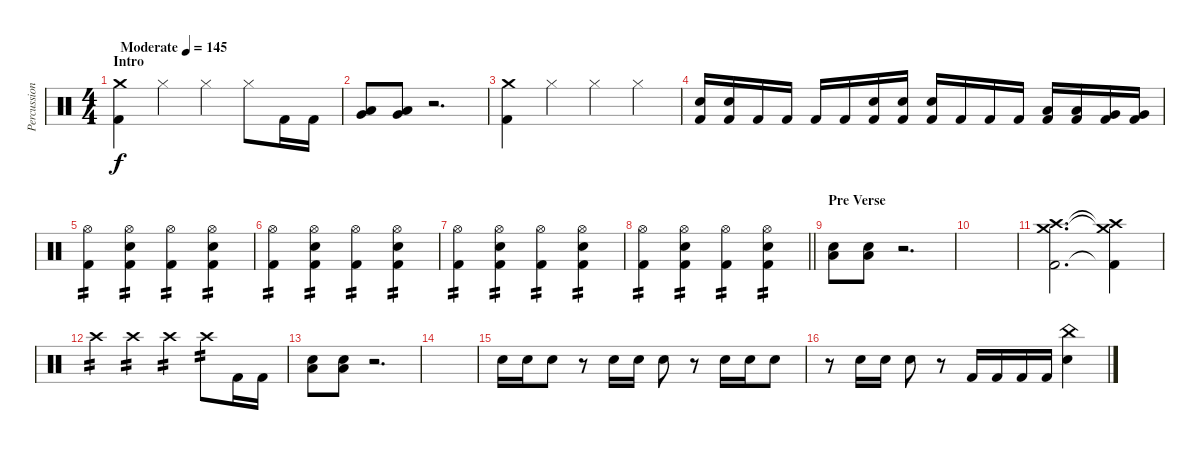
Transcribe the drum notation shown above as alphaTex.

\track ("Percussion" "Percussion") {instrument percussion}
\staff {score}
\articulation defaults
\ts (4 4)
\section ("" "Intro")
\tempo (145 "Moderate")
\clef neutral
\ks c
("Crash medium (hit)" "Kick (hit) 2").4{dy f} "Hi-Hat (closed)".4 "Hi-Hat (closed)".4 "Hi-Hat (closed)".8 "Kick (hit) 2".16 "Kick (hit) 2".16 |
("Very Low Tom (hit)" "Low Floor Tom (hit)").8 ("Very Low Tom (hit)" "Low Floor Tom (hit)").8 r.2{d} |
("Crash medium (hit)" "Kick (hit) 2").4 "Hi-Hat (closed)".4 "Hi-Hat (closed)".4 "Hi-Hat (closed)".4 |
("Electric Snare (hit)" "Kick (hit) 2").16 ("Electric Snare (hit)" "Kick (hit) 2").16 "Kick (hit) 2".16 "Kick (hit) 2".16 "Kick (hit) 2".16 "Kick (hit) 2".16 ("Electric Snare (hit)" "Kick (hit) 2").16 ("Electric Snare (hit)" "Kick (hit) 2").16 ("Electric Snare (hit)" "Kick (hit) 2").16 "Kick (hit) 2".16 "Kick (hit) 2".16 "Kick (hit) 2".16 ("Low Tom (hit)" "Kick (hit) 2").16 ("Low Tom (hit)" "Kick (hit) 2").16 ("Very Low Tom (hit)" "Kick (hit) 2").16 ("Very Low Tom (hit)" "Kick (hit) 2").16 |
("Hi-Hat (open)" "Kick (hit) 2").4{tp 2} ("Electric Snare (hit)" "Hi-Hat (open)" "Kick (hit) 2").4{tp 2} ("Hi-Hat (open)" "Kick (hit) 2").4{tp 2} ("Electric Snare (hit)" "Hi-Hat (open)" "Kick (hit) 2").4{tp 2} |
("Hi-Hat (open)" "Kick (hit) 2").4{tp 2} ("Electric Snare (hit)" "Hi-Hat (open)" "Kick (hit) 2").4{tp 2} ("Hi-Hat (open)" "Kick (hit) 2").4{tp 2} ("Electric Snare (hit)" "Hi-Hat (open)" "Kick (hit) 2").4{tp 2} |
("Hi-Hat (open)" "Kick (hit) 2").4{tp 2} ("Electric Snare (hit)" "Hi-Hat (open)" "Kick (hit) 2").4{tp 2} ("Hi-Hat (open)" "Kick (hit) 2").4{tp 2} ("Electric Snare (hit)" "Hi-Hat (open)" "Kick (hit) 2").4{tp 2} |
\barLineRight lightlight
("Hi-Hat (open)" "Kick (hit) 2").4{tp 2} ("Electric Snare (hit)" "Hi-Hat (open)" "Kick (hit) 2").4{tp 2} ("Hi-Hat (open)" "Kick (hit) 2").4{tp 2} ("Electric Snare (hit)" "Hi-Hat (open)" "Kick (hit) 2").4{tp 2} |
\section ("" "Pre Verse")
("Low Floor Tom (hit)" "Electric Snare (hit)").8 ("Low Floor Tom (hit)" "Electric Snare (hit)").8 r.2{d} |
|
("Crash high (hit)" "Crash medium (hit)" "Kick (hit) 2").2{d} ("Crash high (hit)"{t} "Crash medium (hit)"{t} "Kick (hit) 2"{t}).4{volume 5} |
"Crash high (hit)".4{tp 2 volume 16} "Crash high (hit)".4{tp 2} "Crash high (hit)".4{tp 2} "Crash high (hit)".8{tp 2} "Kick (hit) 2".16 "Kick (hit) 2".16 |
("Low Floor Tom (hit)" "Electric Snare (hit)").8{volume 13} ("Low Floor Tom (hit)" "Electric Snare (hit)").8 r.2{d} |
|
"Electric Snare (hit)".16 "Electric Snare (hit)".16 "Electric Snare (hit)".8 r.8 "Electric Snare (hit)".16 "Electric Snare (hit)".16 "Electric Snare (hit)".8 r.8 "Electric Snare (hit)".16 "Electric Snare (hit)".16 "Electric Snare (hit)".8 |
r.8 "Electric Snare (hit)".16 "Electric Snare (hit)".16 "Electric Snare (hit)".8 r.8 "Kick (hit) 2".16 "Kick (hit) 2".16 "Kick (hit) 2".16 "Kick (hit) 2".16 ("Electric Snare (hit)" "China (hit)").4
